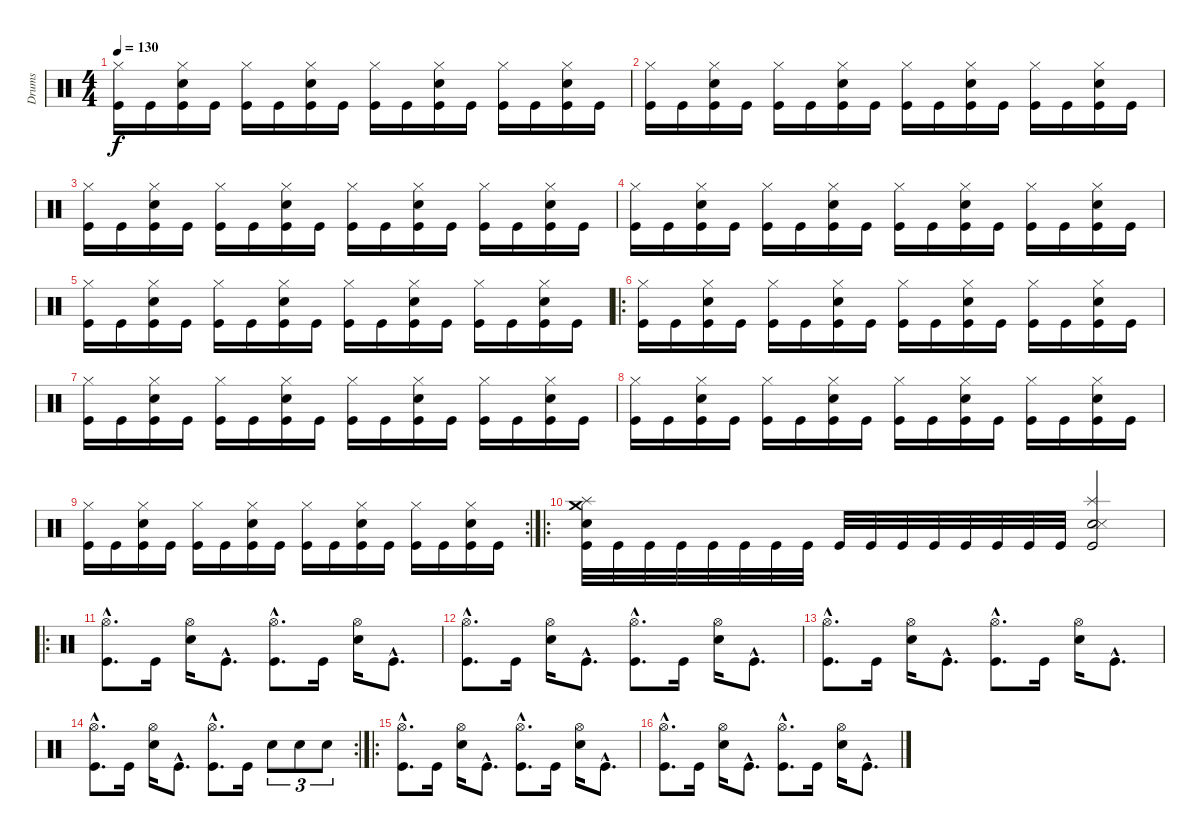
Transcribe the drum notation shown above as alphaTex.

\track ("Drums" "Drums") {instrument percussion}
\staff {score}
\articulation defaults
\ts (4 4)
\tempo 130
\clef neutral
\ks c
("Hi-Hat (closed)" "Kick (hit)").16{dy f} "Kick (hit)".16 ("Hi-Hat (closed)" "Snare (hit) 2" "Kick (hit)").16 "Kick (hit)".16 ("Hi-Hat (closed)" "Kick (hit)").16 "Kick (hit)".16 ("Hi-Hat (closed)" "Snare (hit) 2" "Kick (hit)").16 "Kick (hit)".16 ("Hi-Hat (closed)" "Kick (hit)").16 "Kick (hit)".16 ("Hi-Hat (closed)" "Snare (hit) 2" "Kick (hit)").16 "Kick (hit)".16 ("Hi-Hat (closed)" "Kick (hit)").16 "Kick (hit)".16 ("Hi-Hat (closed)" "Snare (hit) 2" "Kick (hit)").16 "Kick (hit)".16 |
("Hi-Hat (closed)" "Kick (hit)").16 "Kick (hit)".16 ("Hi-Hat (closed)" "Snare (hit) 2" "Kick (hit)").16 "Kick (hit)".16 ("Hi-Hat (closed)" "Kick (hit)").16 "Kick (hit)".16 ("Hi-Hat (closed)" "Snare (hit) 2" "Kick (hit)").16 "Kick (hit)".16 ("Hi-Hat (closed)" "Kick (hit)").16 "Kick (hit)".16 ("Hi-Hat (closed)" "Snare (hit) 2" "Kick (hit)").16 "Kick (hit)".16 ("Hi-Hat (closed)" "Kick (hit)").16 "Kick (hit)".16 ("Hi-Hat (closed)" "Snare (hit) 2" "Kick (hit)").16 "Kick (hit)".16 |
("Hi-Hat (closed)" "Kick (hit)").16 "Kick (hit)".16 ("Hi-Hat (closed)" "Snare (hit) 2" "Kick (hit)").16 "Kick (hit)".16 ("Hi-Hat (closed)" "Kick (hit)").16 "Kick (hit)".16 ("Hi-Hat (closed)" "Snare (hit) 2" "Kick (hit)").16 "Kick (hit)".16 ("Hi-Hat (closed)" "Kick (hit)").16 "Kick (hit)".16 ("Hi-Hat (closed)" "Snare (hit) 2" "Kick (hit)").16 "Kick (hit)".16 ("Hi-Hat (closed)" "Kick (hit)").16 "Kick (hit)".16 ("Hi-Hat (closed)" "Snare (hit) 2" "Kick (hit)").16 "Kick (hit)".16 |
("Hi-Hat (closed)" "Kick (hit)").16 "Kick (hit)".16 ("Hi-Hat (closed)" "Snare (hit) 2" "Kick (hit)").16 "Kick (hit)".16 ("Hi-Hat (closed)" "Kick (hit)").16 "Kick (hit)".16 ("Hi-Hat (closed)" "Snare (hit) 2" "Kick (hit)").16 "Kick (hit)".16 ("Hi-Hat (closed)" "Kick (hit)").16 "Kick (hit)".16 ("Hi-Hat (closed)" "Snare (hit) 2" "Kick (hit)").16 "Kick (hit)".16 ("Hi-Hat (closed)" "Kick (hit)").16 "Kick (hit)".16 ("Hi-Hat (closed)" "Snare (hit) 2" "Kick (hit)").16 "Kick (hit)".16 |
("Hi-Hat (closed)" "Kick (hit)").16 "Kick (hit)".16 ("Hi-Hat (closed)" "Snare (hit) 2" "Kick (hit)").16 "Kick (hit)".16 ("Hi-Hat (closed)" "Kick (hit)").16 "Kick (hit)".16 ("Hi-Hat (closed)" "Snare (hit) 2" "Kick (hit)").16 "Kick (hit)".16 ("Hi-Hat (closed)" "Kick (hit)").16 "Kick (hit)".16 ("Hi-Hat (closed)" "Snare (hit) 2" "Kick (hit)").16 "Kick (hit)".16 ("Hi-Hat (closed)" "Kick (hit)").16 "Kick (hit)".16 ("Hi-Hat (closed)" "Snare (hit) 2" "Kick (hit)").16 "Kick (hit)".16 |
\ro
("Hi-Hat (closed)" "Kick (hit)").16 "Kick (hit)".16 ("Hi-Hat (closed)" "Snare (hit) 2" "Kick (hit)").16 "Kick (hit)".16 ("Hi-Hat (closed)" "Kick (hit)").16 "Kick (hit)".16 ("Hi-Hat (closed)" "Snare (hit) 2" "Kick (hit)").16 "Kick (hit)".16 ("Hi-Hat (closed)" "Kick (hit)").16 "Kick (hit)".16 ("Hi-Hat (closed)" "Snare (hit) 2" "Kick (hit)").16 "Kick (hit)".16 ("Hi-Hat (closed)" "Kick (hit)").16 "Kick (hit)".16 ("Hi-Hat (closed)" "Snare (hit) 2" "Kick (hit)").16 "Kick (hit)".16 |
("Hi-Hat (closed)" "Kick (hit)").16 "Kick (hit)".16 ("Hi-Hat (closed)" "Snare (hit) 2" "Kick (hit)").16 "Kick (hit)".16 ("Hi-Hat (closed)" "Kick (hit)").16 "Kick (hit)".16 ("Hi-Hat (closed)" "Snare (hit) 2" "Kick (hit)").16 "Kick (hit)".16 ("Hi-Hat (closed)" "Kick (hit)").16 "Kick (hit)".16 ("Hi-Hat (closed)" "Snare (hit) 2" "Kick (hit)").16 "Kick (hit)".16 ("Hi-Hat (closed)" "Kick (hit)").16 "Kick (hit)".16 ("Hi-Hat (closed)" "Snare (hit) 2" "Kick (hit)").16 "Kick (hit)".16 |
("Hi-Hat (closed)" "Kick (hit)").16 "Kick (hit)".16 ("Hi-Hat (closed)" "Snare (hit) 2" "Kick (hit)").16 "Kick (hit)".16 ("Hi-Hat (closed)" "Kick (hit)").16 "Kick (hit)".16 ("Hi-Hat (closed)" "Snare (hit) 2" "Kick (hit)").16 "Kick (hit)".16 ("Hi-Hat (closed)" "Kick (hit)").16 "Kick (hit)".16 ("Hi-Hat (closed)" "Snare (hit) 2" "Kick (hit)").16 "Kick (hit)".16 ("Hi-Hat (closed)" "Kick (hit)").16 "Kick (hit)".16 ("Hi-Hat (closed)" "Snare (hit) 2" "Kick (hit)").16 "Kick (hit)".16 |
\rc 2
("Hi-Hat (closed)" "Kick (hit)").16 "Kick (hit)".16 ("Hi-Hat (closed)" "Snare (hit) 2" "Kick (hit)").16 "Kick (hit)".16 ("Hi-Hat (closed)" "Kick (hit)").16 "Kick (hit)".16 ("Hi-Hat (closed)" "Snare (hit) 2" "Kick (hit)").16 "Kick (hit)".16 ("Hi-Hat (closed)" "Kick (hit)").16 "Kick (hit)".16 ("Hi-Hat (closed)" "Snare (hit) 2" "Kick (hit)").16 "Kick (hit)".16 ("Hi-Hat (closed)" "Kick (hit)").16 "Kick (hit)".16 ("Hi-Hat (closed)" "Snare (hit) 2" "Kick (hit)").16 "Kick (hit)".16 |
\ro
("Crash medium (hit)" "Splash (hit)" "Snare (hit) 2" "Kick (hit)").32 "Kick (hit)".32 "Kick (hit)".32 "Kick (hit)".32 "Kick (hit)".32 "Kick (hit)".32 "Kick (hit)".32 "Kick (hit)".32 "Kick (hit)".32 "Kick (hit)".32 "Kick (hit)".32 "Kick (hit)".32 "Kick (hit)".32 "Kick (hit)".32 "Kick (hit)".32 "Kick (hit)".32 ("Splash (hit)" "Snare (hit) 2" "Snare (side stick) 3" "Kick (hit)").2 |
\ro
("Hi-Hat (open)"{hac} "Kick (hit)"{hac}).8{d} "Kick (hit)".16 ("Hi-Hat (open)" "Snare (hit) 2").16 "Kick (hit)"{hac}.8{d} ("Hi-Hat (open)"{hac} "Kick (hit)"{hac}).8{d} "Kick (hit)".16 ("Hi-Hat (open)" "Snare (hit) 2").16 "Kick (hit)"{hac}.8{d} |
("Hi-Hat (open)"{hac} "Kick (hit)"{hac}).8{d} "Kick (hit)".16 ("Hi-Hat (open)" "Snare (hit) 2").16 "Kick (hit)"{hac}.8{d} ("Hi-Hat (open)"{hac} "Kick (hit)"{hac}).8{d} "Kick (hit)".16 ("Hi-Hat (open)" "Snare (hit) 2").16 "Kick (hit)"{hac}.8{d} |
("Hi-Hat (open)"{hac} "Kick (hit)"{hac}).8{d} "Kick (hit)".16 ("Hi-Hat (open)" "Snare (hit) 2").16 "Kick (hit)"{hac}.8{d} ("Hi-Hat (open)"{hac} "Kick (hit)"{hac}).8{d} "Kick (hit)".16 ("Hi-Hat (open)" "Snare (hit) 2").16 "Kick (hit)"{hac}.8{d} |
\rc 2
("Hi-Hat (open)"{hac} "Kick (hit)"{hac}).8{d} "Kick (hit)".16 ("Hi-Hat (open)" "Snare (hit) 2").16 "Kick (hit)"{hac}.8{d} ("Hi-Hat (open)"{hac} "Kick (hit)"{hac}).8{d} "Kick (hit)".16 "Snare (hit) 2".8{tu (3 2)} "Snare (hit) 2".8{tu (3 2)} "Snare (hit) 2".8{tu (3 2)} |
\ro
("Hi-Hat (open)"{hac} "Kick (hit)"{hac}).8{d} "Kick (hit)".16 ("Hi-Hat (open)" "Snare (hit) 2").16 "Kick (hit)"{hac}.8{d} ("Hi-Hat (open)"{hac} "Kick (hit)"{hac}).8{d} "Kick (hit)".16 ("Hi-Hat (open)" "Snare (hit) 2").16 "Kick (hit)"{hac}.8{d} |
("Hi-Hat (open)"{hac} "Kick (hit)"{hac}).8{d} "Kick (hit)".16 ("Hi-Hat (open)" "Snare (hit) 2").16 "Kick (hit)"{hac}.8{d} ("Hi-Hat (open)"{hac} "Kick (hit)"{hac}).8{d} "Kick (hit)".16 ("Hi-Hat (open)" "Snare (hit) 2").16 "Kick (hit)"{hac}.8{d}
